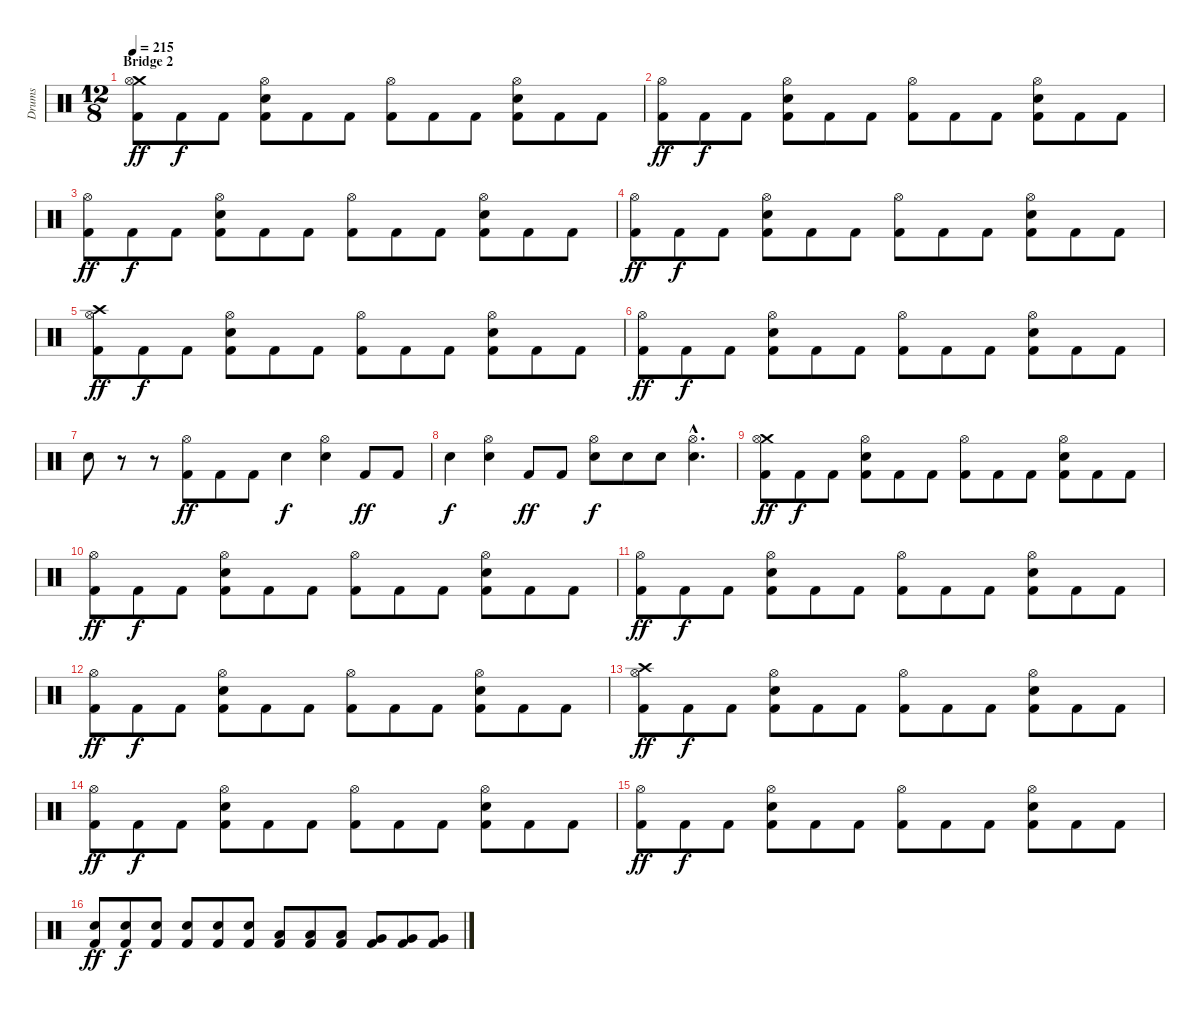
\track ("Drums" "Drums") {instrument percussion}
\staff {score}
\articulation defaults
\ts (12 8)
\section ("" "Bridge 2")
\tempo 215
\clef neutral
\ks c
("Crash medium (hit)" "Hi-Hat (open)" "Kick (hit) 2").8{dy ff} "Kick (hit) 2".8{dy f} "Kick (hit) 2".8 ("Hi-Hat (open)" "Snare (hit) 2" "Kick (hit) 2").8 "Kick (hit) 2".8 "Kick (hit) 2".8 ("Hi-Hat (open)" "Kick (hit) 2").8 "Kick (hit) 2".8 "Kick (hit) 2".8 ("Hi-Hat (open)" "Snare (hit) 2" "Kick (hit) 2").8 "Kick (hit) 2".8 "Kick (hit) 2".8 |
("Hi-Hat (open)" "Kick (hit) 2").8{dy ff} "Kick (hit) 2".8{dy f} "Kick (hit) 2".8 ("Hi-Hat (open)" "Snare (hit) 2" "Kick (hit) 2").8 "Kick (hit) 2".8 "Kick (hit) 2".8 ("Hi-Hat (open)" "Kick (hit) 2").8 "Kick (hit) 2".8 "Kick (hit) 2".8 ("Hi-Hat (open)" "Snare (hit) 2" "Kick (hit) 2").8 "Kick (hit) 2".8 "Kick (hit) 2".8 |
("Hi-Hat (open)" "Kick (hit) 2").8{dy ff} "Kick (hit) 2".8{dy f} "Kick (hit) 2".8 ("Hi-Hat (open)" "Snare (hit) 2" "Kick (hit) 2").8 "Kick (hit) 2".8 "Kick (hit) 2".8 ("Hi-Hat (open)" "Kick (hit) 2").8 "Kick (hit) 2".8 "Kick (hit) 2".8 ("Hi-Hat (open)" "Snare (hit) 2" "Kick (hit) 2").8 "Kick (hit) 2".8 "Kick (hit) 2".8 |
("Hi-Hat (open)" "Kick (hit) 2").8{dy ff} "Kick (hit) 2".8{dy f} "Kick (hit) 2".8 ("Hi-Hat (open)" "Snare (hit) 2" "Kick (hit) 2").8 "Kick (hit) 2".8 "Kick (hit) 2".8 ("Hi-Hat (open)" "Kick (hit) 2").8 "Kick (hit) 2".8 "Kick (hit) 2".8 ("Hi-Hat (open)" "Snare (hit) 2" "Kick (hit) 2").8 "Kick (hit) 2".8 "Kick (hit) 2".8 |
("Crash high (hit)" "Hi-Hat (open)" "Kick (hit) 2").8{dy ff} "Kick (hit) 2".8{dy f} "Kick (hit) 2".8 ("Hi-Hat (open)" "Snare (hit) 2" "Kick (hit) 2").8 "Kick (hit) 2".8 "Kick (hit) 2".8 ("Hi-Hat (open)" "Kick (hit) 2").8 "Kick (hit) 2".8 "Kick (hit) 2".8 ("Hi-Hat (open)" "Snare (hit) 2" "Kick (hit) 2").8 "Kick (hit) 2".8 "Kick (hit) 2".8 |
("Hi-Hat (open)" "Kick (hit) 2").8{dy ff} "Kick (hit) 2".8{dy f} "Kick (hit) 2".8 ("Hi-Hat (open)" "Snare (hit) 2" "Kick (hit) 2").8 "Kick (hit) 2".8 "Kick (hit) 2".8 ("Hi-Hat (open)" "Kick (hit) 2").8 "Kick (hit) 2".8 "Kick (hit) 2".8 ("Hi-Hat (open)" "Snare (hit) 2" "Kick (hit) 2").8 "Kick (hit) 2".8 "Kick (hit) 2".8 |
"Snare (hit) 2".8 r.8 r.8 ("Hi-Hat (open)" "Kick (hit) 2").8{dy ff} "Kick (hit) 2".8 "Kick (hit) 2".8 "Snare (hit) 2".4{dy f} ("Hi-Hat (open)" "Snare (hit) 2").4 "Kick (hit) 2".8{dy ff} "Kick (hit) 2".8 |
"Snare (hit) 2".4{dy f} ("Hi-Hat (open)" "Snare (hit) 2").4 "Kick (hit) 2".8{dy ff} "Kick (hit) 2".8 ("Hi-Hat (open)" "Snare (hit) 2").8{dy f} "Snare (hit) 2".8 "Snare (hit) 2".8 ("Hi-Hat (open)"{hac} "Snare (hit) 2"{hac}).4{d} |
("Crash medium (hit)" "Hi-Hat (open)" "Kick (hit) 2").8{dy ff} "Kick (hit) 2".8{dy f} "Kick (hit) 2".8 ("Hi-Hat (open)" "Snare (hit) 2" "Kick (hit) 2").8 "Kick (hit) 2".8 "Kick (hit) 2".8 ("Hi-Hat (open)" "Kick (hit) 2").8 "Kick (hit) 2".8 "Kick (hit) 2".8 ("Hi-Hat (open)" "Snare (hit) 2" "Kick (hit) 2").8 "Kick (hit) 2".8 "Kick (hit) 2".8 |
("Hi-Hat (open)" "Kick (hit) 2").8{dy ff} "Kick (hit) 2".8{dy f} "Kick (hit) 2".8 ("Hi-Hat (open)" "Snare (hit) 2" "Kick (hit) 2").8 "Kick (hit) 2".8 "Kick (hit) 2".8 ("Hi-Hat (open)" "Kick (hit) 2").8 "Kick (hit) 2".8 "Kick (hit) 2".8 ("Hi-Hat (open)" "Snare (hit) 2" "Kick (hit) 2").8 "Kick (hit) 2".8 "Kick (hit) 2".8 |
("Hi-Hat (open)" "Kick (hit) 2").8{dy ff} "Kick (hit) 2".8{dy f} "Kick (hit) 2".8 ("Hi-Hat (open)" "Snare (hit) 2" "Kick (hit) 2").8 "Kick (hit) 2".8 "Kick (hit) 2".8 ("Hi-Hat (open)" "Kick (hit) 2").8 "Kick (hit) 2".8 "Kick (hit) 2".8 ("Hi-Hat (open)" "Snare (hit) 2" "Kick (hit) 2").8 "Kick (hit) 2".8 "Kick (hit) 2".8 |
("Hi-Hat (open)" "Kick (hit) 2").8{dy ff} "Kick (hit) 2".8{dy f} "Kick (hit) 2".8 ("Hi-Hat (open)" "Snare (hit) 2" "Kick (hit) 2").8 "Kick (hit) 2".8 "Kick (hit) 2".8 ("Hi-Hat (open)" "Kick (hit) 2").8 "Kick (hit) 2".8 "Kick (hit) 2".8 ("Hi-Hat (open)" "Snare (hit) 2" "Kick (hit) 2").8 "Kick (hit) 2".8 "Kick (hit) 2".8 |
("Crash high (hit)" "Hi-Hat (open)" "Kick (hit) 2").8{dy ff} "Kick (hit) 2".8{dy f} "Kick (hit) 2".8 ("Hi-Hat (open)" "Snare (hit) 2" "Kick (hit) 2").8 "Kick (hit) 2".8 "Kick (hit) 2".8 ("Hi-Hat (open)" "Kick (hit) 2").8 "Kick (hit) 2".8 "Kick (hit) 2".8 ("Hi-Hat (open)" "Snare (hit) 2" "Kick (hit) 2").8 "Kick (hit) 2".8 "Kick (hit) 2".8 |
("Hi-Hat (open)" "Kick (hit) 2").8{dy ff} "Kick (hit) 2".8{dy f} "Kick (hit) 2".8 ("Hi-Hat (open)" "Snare (hit) 2" "Kick (hit) 2").8 "Kick (hit) 2".8 "Kick (hit) 2".8 ("Hi-Hat (open)" "Kick (hit) 2").8 "Kick (hit) 2".8 "Kick (hit) 2".8 ("Hi-Hat (open)" "Snare (hit) 2" "Kick (hit) 2").8 "Kick (hit) 2".8 "Kick (hit) 2".8 |
("Hi-Hat (open)" "Kick (hit) 2").8{dy ff} "Kick (hit) 2".8{dy f} "Kick (hit) 2".8 ("Hi-Hat (open)" "Snare (hit) 2" "Kick (hit) 2").8 "Kick (hit) 2".8 "Kick (hit) 2".8 ("Hi-Hat (open)" "Kick (hit) 2").8 "Kick (hit) 2".8 "Kick (hit) 2".8 ("Hi-Hat (open)" "Snare (hit) 2" "Kick (hit) 2").8 "Kick (hit) 2".8 "Kick (hit) 2".8 |
("Snare (hit) 2" "Kick (hit) 2").8{dy ff} ("Snare (hit) 2" "Kick (hit) 2").8{dy f} ("Snare (hit) 2" "Kick (hit) 2").8 ("Snare (hit) 2" "Kick (hit) 2").8 ("Snare (hit) 2" "Kick (hit) 2").8 ("Snare (hit) 2" "Kick (hit) 2").8 ("Low Tom (hit)" "Kick (hit) 2").8 ("Low Tom (hit)" "Kick (hit) 2").8 ("Low Tom (hit)" "Kick (hit) 2").8 ("Very Low Tom (hit)" "Kick (hit) 2").8 ("Very Low Tom (hit)" "Kick (hit) 2").8 ("Very Low Tom (hit)" "Kick (hit) 2").8
